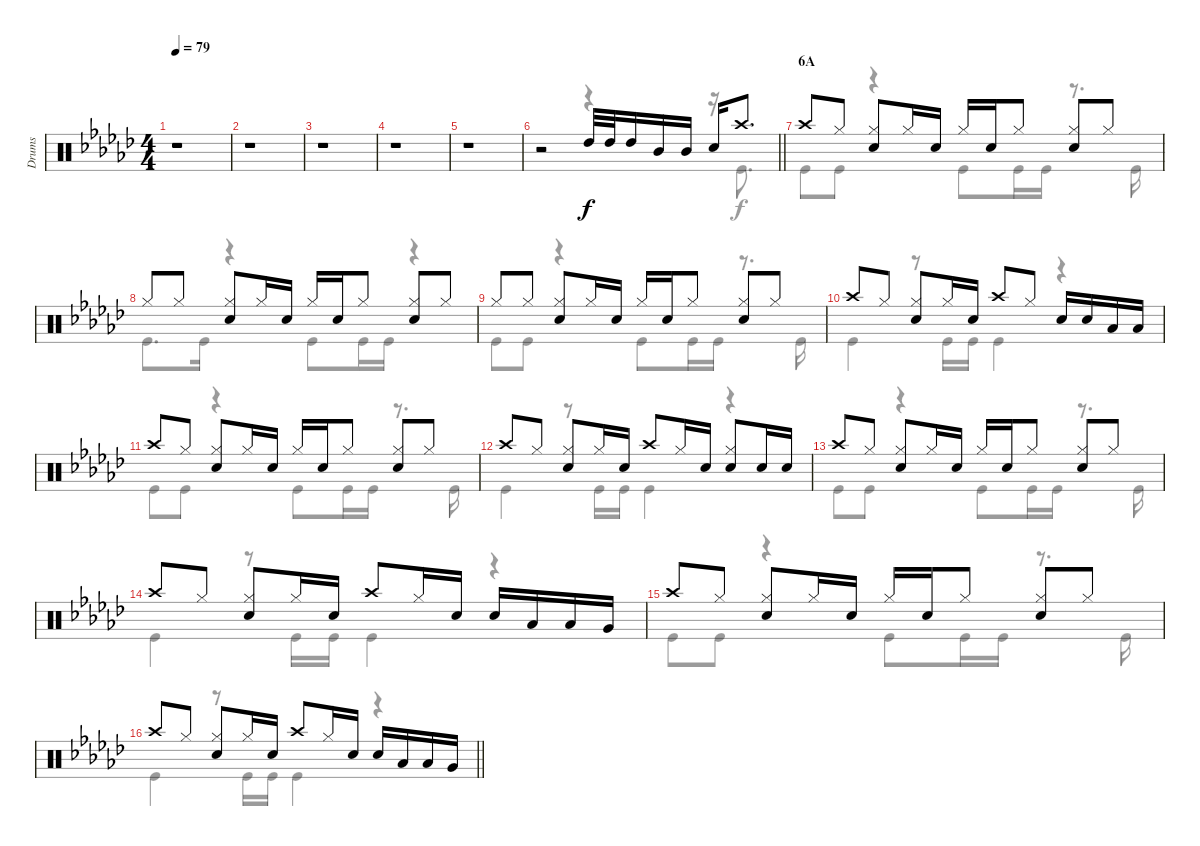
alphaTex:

\track ("Drums" "Drums") {instrument percussion}
\staff {score}
\articulation defaults
\voice
\ts (4 4)
\tempo 79
\clef neutral
\ks gb
r.1{dy f} |
r.1 |
r.1 |
r.1 |
r.1 |
\barLineRight lightlight
r.2 "High Tom (hit)".32 "High Tom (hit)".32 "High Tom (hit)".16 "Mid Tom (hit)".16 "Mid Tom (hit)".16 "Snare (hit) 2".16 "Crash high (hit)".8{d} |
\section ("" "6A")
"Crash high (hit)".8 "Hi-Hat (closed)".8 ("Hi-Hat (closed)" "Snare (hit) 2").8 "Hi-Hat (closed)".16 "Snare (hit) 2".16 "Hi-Hat (closed)".16 "Snare (hit) 2".16 "Hi-Hat (closed)".8 ("Hi-Hat (closed)" "Snare (hit) 2").8 "Hi-Hat (closed)".8 |
"Hi-Hat (closed)".8 "Hi-Hat (closed)".8 ("Hi-Hat (closed)" "Snare (hit) 2").8 "Hi-Hat (closed)".16 "Snare (hit) 2".16 "Hi-Hat (closed)".16 "Snare (hit) 2".16 "Hi-Hat (closed)".8 ("Hi-Hat (closed)" "Snare (hit) 2").8 "Hi-Hat (closed)".8 |
"Hi-Hat (closed)".8 "Hi-Hat (closed)".8 ("Hi-Hat (closed)" "Snare (hit) 2").8 "Hi-Hat (closed)".16 "Snare (hit) 2".16 "Hi-Hat (closed)".16 "Snare (hit) 2".16 "Hi-Hat (closed)".8 ("Hi-Hat (closed)" "Snare (hit) 2").8 "Hi-Hat (closed)".8 |
"Crash high (hit)".8 "Hi-Hat (closed)".8 ("Hi-Hat (closed)" "Snare (hit) 2").8 "Hi-Hat (closed)".16 "Snare (hit) 2".16 "Crash high (hit)".8 "Hi-Hat (closed)".8 "Snare (hit) 2".16 "Snare (hit) 2".16 "Low Tom (hit)".16 "Low Tom (hit)".16 |
"Crash high (hit)".8 "Hi-Hat (closed)".8 ("Hi-Hat (closed)" "Snare (hit) 2").8 "Hi-Hat (closed)".16 "Snare (hit) 2".16 "Hi-Hat (closed)".16 "Snare (hit) 2".16 "Hi-Hat (closed)".8 ("Hi-Hat (closed)" "Snare (hit) 2").8 "Hi-Hat (closed)".8 |
"Crash high (hit)".8 "Hi-Hat (closed)".8 ("Hi-Hat (closed)" "Snare (hit) 2").8 "Hi-Hat (closed)".16 "Snare (hit) 2".16 "Crash high (hit)".8 "Hi-Hat (closed)".16 "Snare (hit) 2".16 ("Hi-Hat (closed)" "Snare (hit) 2").8 "Snare (hit) 2".16 "Snare (hit) 2".16 |
"Crash high (hit)".8 "Hi-Hat (closed)".8 ("Hi-Hat (closed)" "Snare (hit) 2").8 "Hi-Hat (closed)".16 "Snare (hit) 2".16 "Hi-Hat (closed)".16 "Snare (hit) 2".16 "Hi-Hat (closed)".8 ("Hi-Hat (closed)" "Snare (hit) 2").8 "Hi-Hat (closed)".8 |
"Crash high (hit)".8 "Hi-Hat (closed)".8 ("Hi-Hat (closed)" "Snare (hit) 2").8 "Hi-Hat (closed)".16 "Snare (hit) 2".16 "Crash high (hit)".8 "Hi-Hat (closed)".16 "Snare (hit) 2".16 "Snare (hit) 2".16 "Low Tom (hit)".16 "Low Tom (hit)".16 "Very Low Tom (hit)".16 |
"Crash high (hit)".8 "Hi-Hat (closed)".8 ("Hi-Hat (closed)" "Snare (hit) 2").8 "Hi-Hat (closed)".16 "Snare (hit) 2".16 "Hi-Hat (closed)".16 "Snare (hit) 2".16 "Hi-Hat (closed)".8 ("Hi-Hat (closed)" "Snare (hit) 2").8 "Hi-Hat (closed)".8 |
\barLineRight lightlight "Crash high (hit)".8 "Hi-Hat (closed)".8
("Hi-Hat (closed)" "Snare (hit) 2").8 "Hi-Hat (closed)".16 "Snare (hit) 2".16 "Crash high (hit)".8 "Hi-Hat (closed)".16 "Snare (hit) 2".16 "Snare (hit) 2".16 "Low Tom (hit)".16 "Low Tom (hit)".16 "Very Low Tom (hit)".16
\voice
\clef neutral
\ottava regular
\simile none
\ks gb
r.1{dy f} |
r.1 |
r.1 |
r.1 |
r.1 |
\barLineRight lightlight
r.2 r.4 r.16 "Kick (hit)".8{d} |
"Kick (hit)".8 "Kick (hit)".8 r.4 "Kick (hit)".8 "Kick (hit)".16 "Kick (hit)".16 r.8{d} "Kick (hit)".16 |
"Kick (hit)".8{d} "Kick (hit)".16 r.4 "Kick (hit)".8 "Kick (hit)".16 "Kick (hit)".16 r.4 |
"Kick (hit)".8 "Kick (hit)".8 r.4 "Kick (hit)".8 "Kick (hit)".16 "Kick (hit)".16 r.8{d} "Kick (hit)".16 |
"Kick (hit)".4 r.8 "Kick (hit)".16 "Kick (hit)".16 "Kick (hit)".4 r.4 |
"Kick (hit)".8 "Kick (hit)".8 r.4 "Kick (hit)".8 "Kick (hit)".16 "Kick (hit)".16 r.8{d} "Kick (hit)".16 |
"Kick (hit)".4 r.8 "Kick (hit)".16 "Kick (hit)".16 "Kick (hit)".4 r.4 |
"Kick (hit)".8 "Kick (hit)".8 r.4 "Kick (hit)".8 "Kick (hit)".16 "Kick (hit)".16 r.8{d} "Kick (hit)".16 |
"Kick (hit)".4 r.8 "Kick (hit)".16 "Kick (hit)".16 "Kick (hit)".4 r.4 |
"Kick (hit)".8 "Kick (hit)".8 r.4 "Kick (hit)".8 "Kick (hit)".16 "Kick (hit)".16 r.8{d} "Kick (hit)".16 |
\barLineRight lightlight "Kick (hit)".4
r.8 "Kick (hit)".16 "Kick (hit)".16 "Kick (hit)".4 r.4
